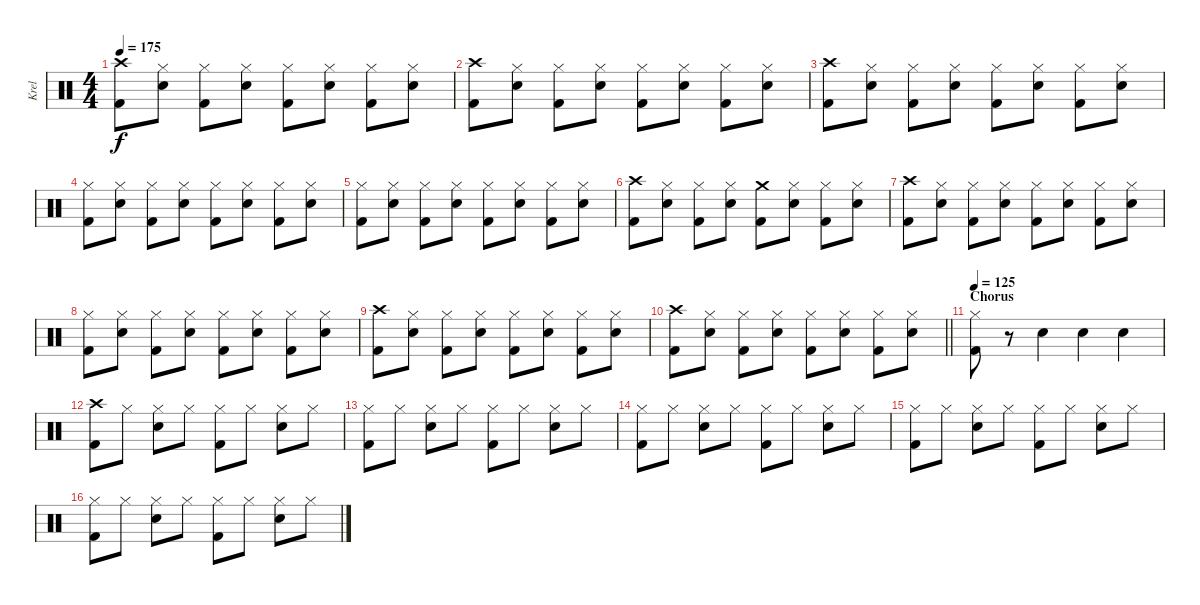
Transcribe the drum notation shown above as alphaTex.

\track ("Krel" "Krel") {instrument percussion}
\staff {score}
\articulation defaults
\ts (4 4)
\tempo 175
\clef neutral
\ks c
("Crash high (hit)" "Kick (hit) 2").8{dy f} ("Hi-Hat (closed)" "Snare (hit) 2").8 ("Hi-Hat (closed)" "Kick (hit) 2").8 ("Hi-Hat (closed)" "Snare (hit) 2").8 ("Hi-Hat (closed)" "Kick (hit) 2").8 ("Hi-Hat (closed)" "Snare (hit) 2").8 ("Hi-Hat (closed)" "Kick (hit) 2").8 ("Hi-Hat (closed)" "Snare (hit) 2").8 |
("Crash high (hit)" "Kick (hit) 2").8 ("Hi-Hat (closed)" "Snare (hit) 2").8 ("Hi-Hat (closed)" "Kick (hit) 2").8 ("Hi-Hat (closed)" "Snare (hit) 2").8 ("Hi-Hat (closed)" "Kick (hit) 2").8 ("Hi-Hat (closed)" "Snare (hit) 2").8 ("Hi-Hat (closed)" "Kick (hit) 2").8 ("Hi-Hat (closed)" "Snare (hit) 2").8 |
("Crash high (hit)" "Kick (hit) 2").8 ("Hi-Hat (closed)" "Snare (hit) 2").8 ("Hi-Hat (closed)" "Kick (hit) 2").8 ("Hi-Hat (closed)" "Snare (hit) 2").8 ("Hi-Hat (closed)" "Kick (hit) 2").8 ("Hi-Hat (closed)" "Snare (hit) 2").8 ("Hi-Hat (closed)" "Kick (hit) 2").8 ("Hi-Hat (closed)" "Snare (hit) 2").8 |
("Hi-Hat (closed)" "Kick (hit) 2").8 ("Hi-Hat (closed)" "Snare (hit) 2").8 ("Hi-Hat (closed)" "Kick (hit) 2").8 ("Hi-Hat (closed)" "Snare (hit) 2").8 ("Hi-Hat (closed)" "Kick (hit) 2").8 ("Hi-Hat (closed)" "Snare (hit) 2").8 ("Hi-Hat (closed)" "Kick (hit) 2").8 ("Hi-Hat (closed)" "Snare (hit) 2").8 |
("Hi-Hat (closed)" "Kick (hit) 2").8 ("Hi-Hat (closed)" "Snare (hit) 2").8 ("Hi-Hat (closed)" "Kick (hit) 2").8 ("Hi-Hat (closed)" "Snare (hit) 2").8 ("Hi-Hat (closed)" "Kick (hit) 2").8 ("Hi-Hat (closed)" "Snare (hit) 2").8 ("Hi-Hat (closed)" "Kick (hit) 2").8 ("Hi-Hat (closed)" "Snare (hit) 2").8 |
("Crash high (hit)" "Kick (hit) 2").8 ("Hi-Hat (closed)" "Snare (hit) 2").8 ("Hi-Hat (closed)" "Kick (hit) 2").8 ("Hi-Hat (closed)" "Snare (hit) 2").8 ("Crash medium (hit)" "Kick (hit) 2").8 ("Hi-Hat (closed)" "Snare (hit) 2").8 ("Hi-Hat (closed)" "Kick (hit) 2").8 ("Hi-Hat (closed)" "Snare (hit) 2").8 |
("Crash high (hit)" "Kick (hit) 2").8 ("Hi-Hat (closed)" "Snare (hit) 2").8 ("Hi-Hat (closed)" "Kick (hit) 2").8 ("Hi-Hat (closed)" "Snare (hit) 2").8 ("Hi-Hat (closed)" "Kick (hit) 2").8 ("Hi-Hat (closed)" "Snare (hit) 2").8 ("Hi-Hat (closed)" "Kick (hit) 2").8 ("Hi-Hat (closed)" "Snare (hit) 2").8 |
("Hi-Hat (closed)" "Kick (hit) 2").8 ("Hi-Hat (closed)" "Snare (hit) 2").8 ("Hi-Hat (closed)" "Kick (hit) 2").8 ("Hi-Hat (closed)" "Snare (hit) 2").8 ("Hi-Hat (closed)" "Kick (hit) 2").8 ("Hi-Hat (closed)" "Snare (hit) 2").8 ("Hi-Hat (closed)" "Kick (hit) 2").8 ("Hi-Hat (closed)" "Snare (hit) 2").8 |
("Crash high (hit)" "Kick (hit) 2").8 ("Hi-Hat (closed)" "Snare (hit) 2").8 ("Hi-Hat (closed)" "Kick (hit) 2").8 ("Hi-Hat (closed)" "Snare (hit) 2").8 ("Hi-Hat (closed)" "Kick (hit) 2").8 ("Hi-Hat (closed)" "Snare (hit) 2").8 ("Hi-Hat (closed)" "Kick (hit) 2").8 ("Hi-Hat (closed)" "Snare (hit) 2").8 |
\barLineRight lightlight
("Crash high (hit)" "Kick (hit) 2").8 ("Hi-Hat (closed)" "Snare (hit) 2").8 ("Hi-Hat (closed)" "Kick (hit) 2").8 ("Hi-Hat (closed)" "Snare (hit) 2").8 ("Hi-Hat (closed)" "Kick (hit) 2").8 ("Hi-Hat (closed)" "Snare (hit) 2").8 ("Hi-Hat (closed)" "Kick (hit) 2").8 ("Hi-Hat (closed)" "Snare (hit) 2").8 |
\section ("" "Chorus")
\tempo 125
("Hi-Hat (closed)" "Kick (hit) 2").8 r.8 "Snare (hit) 2".4 "Snare (hit) 2".4 "Snare (hit) 2".4 |
("Crash high (hit)" "Kick (hit) 2").8 "Hi-Hat (closed)".8 ("Hi-Hat (closed)" "Snare (hit) 2").8 "Hi-Hat (closed)".8 ("Hi-Hat (closed)" "Kick (hit) 2").8 "Hi-Hat (closed)".8 ("Hi-Hat (closed)" "Snare (hit) 2").8 "Hi-Hat (closed)".8 |
("Hi-Hat (closed)" "Kick (hit) 2").8 "Hi-Hat (closed)".8 ("Hi-Hat (closed)" "Snare (hit) 2").8 "Hi-Hat (closed)".8 ("Hi-Hat (closed)" "Kick (hit) 2").8 "Hi-Hat (closed)".8 ("Hi-Hat (closed)" "Snare (hit) 2").8 "Hi-Hat (closed)".8 |
("Hi-Hat (closed)" "Kick (hit) 2").8 "Hi-Hat (closed)".8 ("Hi-Hat (closed)" "Snare (hit) 2").8 "Hi-Hat (closed)".8 ("Hi-Hat (closed)" "Kick (hit) 2").8 "Hi-Hat (closed)".8 ("Hi-Hat (closed)" "Snare (hit) 2").8 "Hi-Hat (closed)".8 |
("Hi-Hat (closed)" "Kick (hit) 2").8 "Hi-Hat (closed)".8 ("Hi-Hat (closed)" "Snare (hit) 2").8 "Hi-Hat (closed)".8 ("Hi-Hat (closed)" "Kick (hit) 2").8 "Hi-Hat (closed)".8 ("Hi-Hat (closed)" "Snare (hit) 2").8 "Hi-Hat (closed)".8 |
("Hi-Hat (closed)" "Kick (hit) 2").8 "Hi-Hat (closed)".8 ("Hi-Hat (closed)" "Snare (hit) 2").8 "Hi-Hat (closed)".8 ("Hi-Hat (closed)" "Kick (hit) 2").8 "Hi-Hat (closed)".8 ("Hi-Hat (closed)" "Snare (hit) 2").8 "Hi-Hat (closed)".8
